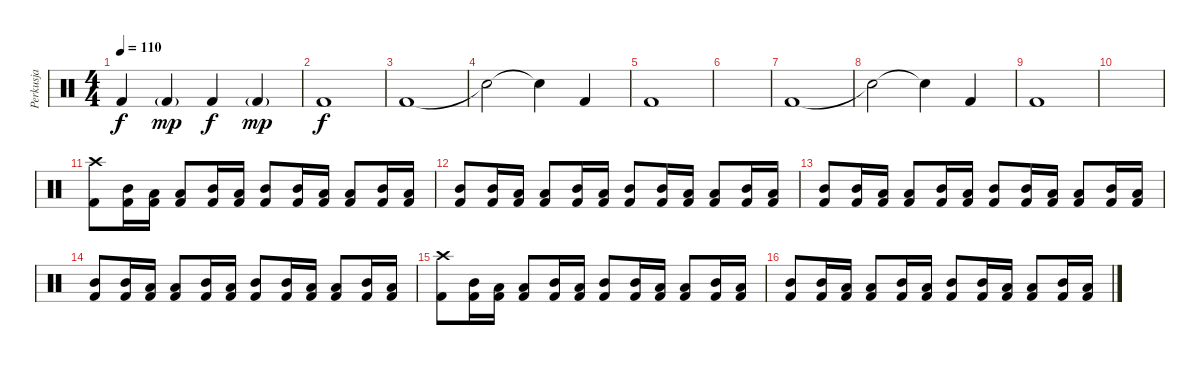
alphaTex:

\track ("Perkusja" "Perkusja") {instrument percussion}
\staff {score}
\articulation defaults
\ts (4 4)
\tempo 110
\clef neutral
\ks c "Kick (hit) 2".4{dy f} "Kick (hit) 2"{g}.4{dy mp} "Kick (hit) 2".4{dy f} "Kick (hit) 2"{g}.4{dy mp}
|
"Kick (hit) 2".1{dy f} |
"Kick (hit) 2".1 |
"Snare (hit)"{t}.2 "Snare (hit)"{t}.4 "Kick (hit) 2".4 |
"Kick (hit) 2".1 |
|
"Kick (hit) 2".1 |
"Snare (hit)"{t}.2 "Snare (hit)"{t}.4 "Kick (hit) 2".4 |
"Kick (hit) 2".1 |
|
("Crash high (hit)" "Kick (hit) 2").8{volume 14} ("Mid Tom (hit)" "Kick (hit) 2").16 ("Low Tom (hit)" "Kick (hit) 2").16 ("Low Tom (hit)" "Kick (hit) 2").8 ("Mid Tom (hit)" "Kick (hit) 2").16 ("Low Tom (hit)" "Kick (hit) 2").16 ("Mid Tom (hit)" "Kick (hit) 2").8 ("Mid Tom (hit)" "Kick (hit) 2").16 ("Low Tom (hit)" "Kick (hit) 2").16 ("Low Tom (hit)" "Kick (hit) 2").8 ("Mid Tom (hit)" "Kick (hit) 2").16 ("Low Tom (hit)" "Kick (hit) 2").16 |
("Mid Tom (hit)" "Kick (hit) 2").8 ("Mid Tom (hit)" "Kick (hit) 2").16 ("Low Tom (hit)" "Kick (hit) 2").16 ("Low Tom (hit)" "Kick (hit) 2").8 ("Mid Tom (hit)" "Kick (hit) 2").16 ("Low Tom (hit)" "Kick (hit) 2").16 ("Mid Tom (hit)" "Kick (hit) 2").8 ("Mid Tom (hit)" "Kick (hit) 2").16 ("Low Tom (hit)" "Kick (hit) 2").16 ("Low Tom (hit)" "Kick (hit) 2").8 ("Mid Tom (hit)" "Kick (hit) 2").16 ("Low Tom (hit)" "Kick (hit) 2").16 |
("Mid Tom (hit)" "Kick (hit) 2").8 ("Mid Tom (hit)" "Kick (hit) 2").16 ("Low Tom (hit)" "Kick (hit) 2").16 ("Low Tom (hit)" "Kick (hit) 2").8 ("Mid Tom (hit)" "Kick (hit) 2").16 ("Low Tom (hit)" "Kick (hit) 2").16 ("Mid Tom (hit)" "Kick (hit) 2").8 ("Mid Tom (hit)" "Kick (hit) 2").16 ("Low Tom (hit)" "Kick (hit) 2").16 ("Low Tom (hit)" "Kick (hit) 2").8 ("Mid Tom (hit)" "Kick (hit) 2").16 ("Low Tom (hit)" "Kick (hit) 2").16 |
("Mid Tom (hit)" "Kick (hit) 2").8 ("Mid Tom (hit)" "Kick (hit) 2").16 ("Low Tom (hit)" "Kick (hit) 2").16 ("Low Tom (hit)" "Kick (hit) 2").8 ("Mid Tom (hit)" "Kick (hit) 2").16 ("Low Tom (hit)" "Kick (hit) 2").16 ("Mid Tom (hit)" "Kick (hit) 2").8 ("Mid Tom (hit)" "Kick (hit) 2").16 ("Low Tom (hit)" "Kick (hit) 2").16 ("Low Tom (hit)" "Kick (hit) 2").8 ("Mid Tom (hit)" "Kick (hit) 2").16 ("Low Tom (hit)" "Kick (hit) 2").16 |
("Crash high (hit)" "Kick (hit) 2").8 ("Mid Tom (hit)" "Kick (hit) 2").16 ("Low Tom (hit)" "Kick (hit) 2").16 ("Low Tom (hit)" "Kick (hit) 2").8 ("Mid Tom (hit)" "Kick (hit) 2").16 ("Low Tom (hit)" "Kick (hit) 2").16 ("Mid Tom (hit)" "Kick (hit) 2").8 ("Mid Tom (hit)" "Kick (hit) 2").16 ("Low Tom (hit)" "Kick (hit) 2").16 ("Low Tom (hit)" "Kick (hit) 2").8 ("Mid Tom (hit)" "Kick (hit) 2").16 ("Low Tom (hit)" "Kick (hit) 2").16 |
("Mid Tom (hit)" "Kick (hit) 2").8 ("Mid Tom (hit)" "Kick (hit) 2").16 ("Low Tom (hit)" "Kick (hit) 2").16 ("Low Tom (hit)" "Kick (hit) 2").8 ("Mid Tom (hit)" "Kick (hit) 2").16 ("Low Tom (hit)" "Kick (hit) 2").16 ("Mid Tom (hit)" "Kick (hit) 2").8 ("Mid Tom (hit)" "Kick (hit) 2").16 ("Low Tom (hit)" "Kick (hit) 2").16 ("Low Tom (hit)" "Kick (hit) 2").8 ("Mid Tom (hit)" "Kick (hit) 2").16 ("Low Tom (hit)" "Kick (hit) 2").16
